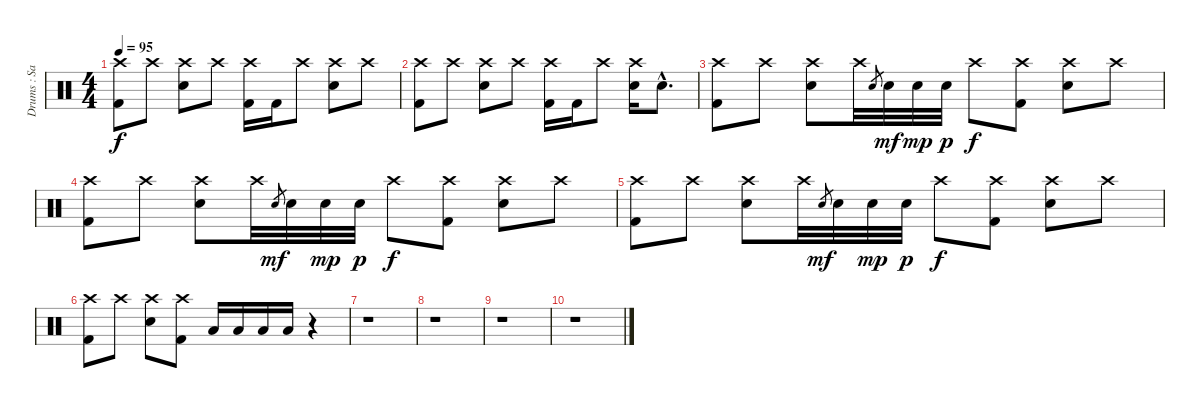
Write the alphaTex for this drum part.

\track ("Drums : Sammy Siegler" "Drums : Sa") {instrument percussion}
\staff {score}
\articulation defaults
\ts (4 4)
\tempo 95
\clef neutral
\ks c
("Crash high (hit)" "Kick (hit) 2").8{dy f} "Crash high (hit)".8 ("Crash high (hit)" "Electric Snare (hit)").8 "Crash high (hit)".8 ("Crash high (hit)" "Kick (hit) 2").16 "Kick (hit) 2".16 "Crash high (hit)".8 ("Crash high (hit)" "Electric Snare (hit)").8 "Crash high (hit)".8 |
("Crash high (hit)" "Kick (hit) 2").8 "Crash high (hit)".8 ("Crash high (hit)" "Electric Snare (hit)").8 "Crash high (hit)".8 ("Crash high (hit)" "Kick (hit) 2").16 "Kick (hit) 2".16 "Crash high (hit)".8 ("Crash high (hit)" "Electric Snare (hit)").16 "Electric Snare (hit)"{hac}.8{d} |
("Crash high (hit)" "Kick (hit) 2").8 "Crash high (hit)".8 ("Crash high (hit)" "Electric Snare (hit)").8 "Crash high (hit)".32 "Electric Snare (hit)".8{gr} "Electric Snare (hit)".32{dy mf} "Electric Snare (hit)".32{dy mp} "Electric Snare (hit)".32{dy p} "Crash high (hit)".8{dy f} ("Crash high (hit)" "Kick (hit) 2").8 ("Crash high (hit)" "Electric Snare (hit)").8 "Crash high (hit)".8 |
("Crash high (hit)" "Kick (hit) 2").8 "Crash high (hit)".8 ("Crash high (hit)" "Electric Snare (hit)").8 "Crash high (hit)".32 "Electric Snare (hit)".8{gr dy mf} "Electric Snare (hit)".32 "Electric Snare (hit)".32{dy mp} "Electric Snare (hit)".32{dy p} "Crash high (hit)".8{dy f} ("Crash high (hit)" "Kick (hit) 2").8 ("Crash high (hit)" "Electric Snare (hit)").8 "Crash high (hit)".8 |
("Crash high (hit)" "Kick (hit) 2").8 "Crash high (hit)".8 ("Crash high (hit)" "Electric Snare (hit)").8 "Crash high (hit)".32 "Electric Snare (hit)".8{gr dy mf} "Electric Snare (hit)".32 "Electric Snare (hit)".32{dy mp} "Electric Snare (hit)".32{dy p} "Crash high (hit)".8{dy f} ("Crash high (hit)" "Kick (hit) 2").8 ("Crash high (hit)" "Electric Snare (hit)").8 "Crash high (hit)".8 |
("Crash high (hit)" "Kick (hit) 2").8 "Crash high (hit)".8 ("Crash high (hit)" "Electric Snare (hit)").8 ("Crash high (hit)" "Kick (hit) 2").8 "Low Floor Tom (hit)".16 "Low Tom (hit)".16 "Low Floor Tom (hit)".16 "Low Floor Tom (hit)".16 r.4 |
r.1 |
r.1 |
r.1 |
r.1
